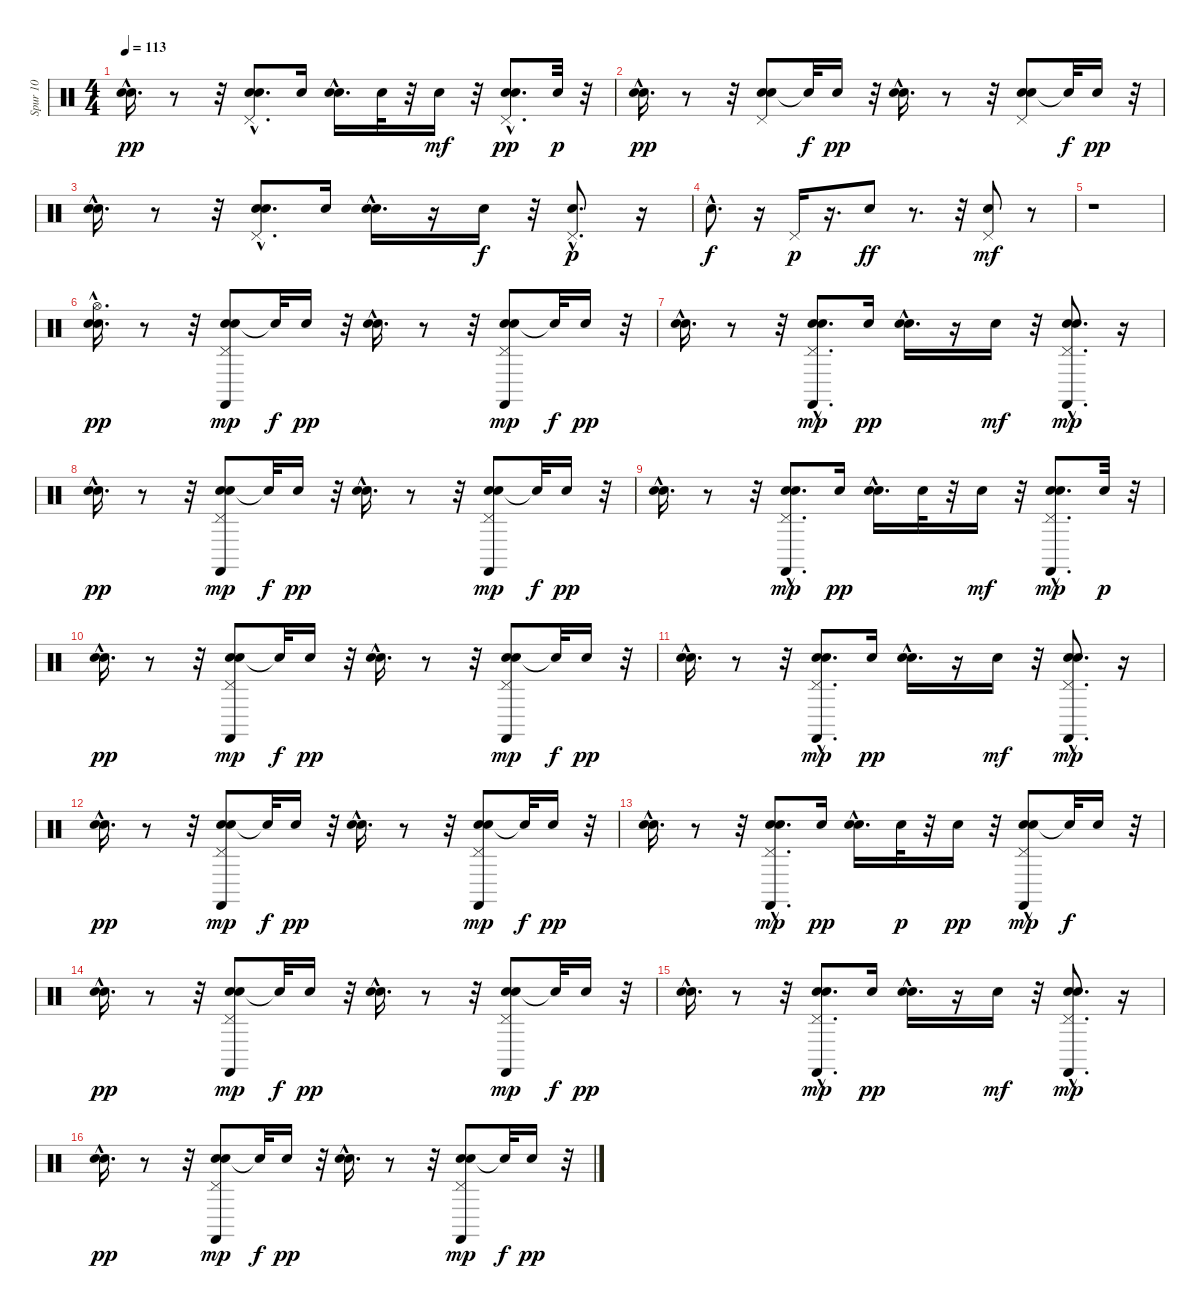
\track ("Spur 10" "Spur 10") {instrument percussion}
\staff {score}
\articulation defaults
\ts (4 4)
\tempo 113
\clef neutral
\ks c
("Snare (hit) 2"{hac} "Electric Snare (hit)").16{d dy pp} r.8 r.32 ("Snare (hit) 2" "Pedal Hi-Hat (hit)"{hac} "Electric Snare (hit)").8{d} "Snare (hit) 2".16 ("Snare (hit) 2"{hac} "Electric Snare (hit)").16{d} "Snare (hit) 2".32 r.32 "Snare (hit) 2".16{dy mf} r.32 ("Snare (hit) 2"{hac} "Pedal Hi-Hat (hit)"{hac} "Electric Snare (hit)").8{d dy pp} "Snare (hit) 2".32{dy p} r.32 |
("Snare (hit) 2"{hac} "Electric Snare (hit)").16{d dy pp} r.8 r.32 ("Snare (hit) 2" "Pedal Hi-Hat (hit)" "Electric Snare (hit)").8 "Snare (hit)"{t}.32{dy f} "Snare (hit) 2".16{dy pp} r.32 ("Snare (hit) 2"{hac} "Electric Snare (hit)").16{d} r.8 r.32 ("Snare (hit) 2" "Pedal Hi-Hat (hit)" "Electric Snare (hit)").8 "Snare (hit)"{t}.32{dy f} "Snare (hit) 2".16{dy pp} r.32 |
("Snare (hit) 2"{hac} "Electric Snare (hit)").16{d} r.8 r.32 ("Snare (hit) 2" "Pedal Hi-Hat (hit)"{hac} "Electric Snare (hit)").8{d} "Snare (hit) 2".16 ("Snare (hit) 2"{hac} "Electric Snare (hit)").16{d} r.16 "Hand Clap (hit)".16{dy f} r.32 ("Snare (hit) 2"{hac} "Pedal Hi-Hat (hit)"{hac}).8{d dy p} r.16 |
"Hand Clap (hit)"{hac}.8{d dy f} r.16 "Pedal Hi-Hat (hit)".16{dy p} r.16{d} "Snare (hit) 2".8{dy ff} r.8{d} r.32 ("Pedal Hi-Hat (hit)" "Hand Clap (hit)").8{dy mf} r.8 |
r.1 |
("Hi-Hat (open)" "Snare (hit) 2"{hac} "Electric Snare (hit)").16{d dy pp} r.8 r.32 ("Snare (hit) 2" "Pedal Hi-Hat (hit)" "Electric Snare (hit)" "Castanets (hit)").8{dy mp} "Snare (hit)"{t}.32{dy f} "Snare (hit) 2".16{dy pp} r.32 ("Snare (hit) 2"{hac} "Electric Snare (hit)").16{d} r.8 r.32 ("Snare (hit) 2" "Pedal Hi-Hat (hit)" "Electric Snare (hit)" "Castanets (hit)").8{dy mp} "Snare (hit)"{t}.32{dy f} "Snare (hit) 2".16{dy pp} r.32 |
("Snare (hit) 2"{hac} "Electric Snare (hit)").16{d} r.8 r.32 ("Snare (hit) 2" "Pedal Hi-Hat (hit)"{hac} "Electric Snare (hit)" "Castanets (hit)").8{d dy mp} "Snare (hit) 2".16{dy pp} ("Snare (hit) 2"{hac} "Electric Snare (hit)").16{d} r.16 "Snare (hit) 2".16{dy mf} r.32 ("Snare (hit) 2"{hac} "Pedal Hi-Hat (hit)"{hac} "Electric Snare (hit)" "Castanets (hit)").8{d dy mp} r.16 |
("Snare (hit) 2"{hac} "Electric Snare (hit)").16{d dy pp} r.8 r.32 ("Snare (hit) 2" "Pedal Hi-Hat (hit)" "Electric Snare (hit)" "Castanets (hit)").8{dy mp} "Snare (hit)"{t}.32{dy f} "Snare (hit) 2".16{dy pp} r.32 ("Snare (hit) 2"{hac} "Electric Snare (hit)").16{d} r.8 r.32 ("Snare (hit) 2" "Pedal Hi-Hat (hit)" "Electric Snare (hit)" "Castanets (hit)").8{dy mp} "Snare (hit)"{t}.32{dy f} "Snare (hit) 2".16{dy pp} r.32 |
("Snare (hit) 2"{hac} "Electric Snare (hit)").16{d} r.8 r.32 ("Snare (hit) 2" "Pedal Hi-Hat (hit)"{hac} "Electric Snare (hit)" "Castanets (hit)").8{d dy mp} "Snare (hit) 2".16{dy pp} ("Snare (hit) 2"{hac} "Electric Snare (hit)").16{d} "Snare (hit) 2".32 r.32 "Snare (hit) 2".16{dy mf} r.32 ("Snare (hit) 2"{hac} "Pedal Hi-Hat (hit)"{hac} "Electric Snare (hit)" "Castanets (hit)").8{d dy mp} "Snare (hit) 2".32{dy p} r.32 |
("Snare (hit) 2"{hac} "Electric Snare (hit)").16{d dy pp} r.8 r.32 ("Snare (hit) 2" "Pedal Hi-Hat (hit)" "Electric Snare (hit)" "Castanets (hit)").8{dy mp} "Snare (hit)"{t}.32{dy f} "Snare (hit) 2".16{dy pp} r.32 ("Snare (hit) 2"{hac} "Electric Snare (hit)").16{d} r.8 r.32 ("Snare (hit) 2" "Pedal Hi-Hat (hit)" "Electric Snare (hit)" "Castanets (hit)").8{dy mp} "Snare (hit)"{t}.32{dy f} "Snare (hit) 2".16{dy pp} r.32 |
("Snare (hit) 2"{hac} "Electric Snare (hit)").16{d} r.8 r.32 ("Snare (hit) 2" "Pedal Hi-Hat (hit)"{hac} "Electric Snare (hit)" "Castanets (hit)").8{d dy mp} "Snare (hit) 2".16{dy pp} ("Snare (hit) 2"{hac} "Electric Snare (hit)").16{d} r.16 "Snare (hit) 2".16{dy mf} r.32 ("Snare (hit) 2"{hac} "Pedal Hi-Hat (hit)"{hac} "Electric Snare (hit)" "Castanets (hit)").8{d dy mp} r.16 |
("Snare (hit) 2"{hac} "Electric Snare (hit)").16{d dy pp} r.8 r.32 ("Snare (hit) 2" "Pedal Hi-Hat (hit)" "Electric Snare (hit)" "Castanets (hit)").8{dy mp} "Snare (hit)"{t}.32{dy f} "Snare (hit) 2".16{dy pp} r.32 ("Snare (hit) 2"{hac} "Electric Snare (hit)").16{d} r.8 r.32 ("Snare (hit) 2" "Pedal Hi-Hat (hit)" "Electric Snare (hit)" "Castanets (hit)").8{dy mp} "Snare (hit)"{t}.32{dy f} "Snare (hit) 2".16{dy pp} r.32 |
("Snare (hit) 2"{hac} "Electric Snare (hit)").16{d} r.8 r.32 ("Snare (hit) 2" "Pedal Hi-Hat (hit)"{hac} "Electric Snare (hit)" "Castanets (hit)").8{d dy mp} "Snare (hit) 2".16{dy pp} ("Snare (hit) 2"{hac} "Electric Snare (hit)").16{d} "Snare (hit) 2".32{dy p} r.32 "Snare (hit) 2".16{dy pp} r.32 ("Hand Clap (hit)"{hac} "Pedal Hi-Hat (hit)" "Electric Snare (hit)" "Castanets (hit)").8{dy mp} "Snare (hit)"{t}.32{dy f} "Hand Clap (hit)".16 r.32 |
("Snare (hit) 2"{hac} "Electric Snare (hit)").16{d dy pp} r.8 r.32 ("Snare (hit) 2" "Pedal Hi-Hat (hit)" "Electric Snare (hit)" "Castanets (hit)").8{dy mp} "Snare (hit)"{t}.32{dy f} "Snare (hit) 2".16{dy pp} r.32 ("Snare (hit) 2"{hac} "Electric Snare (hit)").16{d} r.8 r.32 ("Snare (hit) 2" "Pedal Hi-Hat (hit)" "Electric Snare (hit)" "Castanets (hit)").8{dy mp} "Snare (hit)"{t}.32{dy f} "Snare (hit) 2".16{dy pp} r.32 |
("Snare (hit) 2"{hac} "Electric Snare (hit)").16{d} r.8 r.32 ("Snare (hit) 2" "Pedal Hi-Hat (hit)"{hac} "Electric Snare (hit)" "Castanets (hit)").8{d dy mp} "Snare (hit) 2".16{dy pp} ("Snare (hit) 2"{hac} "Electric Snare (hit)").16{d} r.16 "Snare (hit) 2".16{dy mf} r.32 ("Snare (hit) 2"{hac} "Pedal Hi-Hat (hit)"{hac} "Electric Snare (hit)" "Castanets (hit)").8{d dy mp} r.16 |
("Snare (hit) 2"{hac} "Electric Snare (hit)").16{d dy pp} r.8 r.32 ("Snare (hit) 2" "Pedal Hi-Hat (hit)" "Electric Snare (hit)" "Castanets (hit)").8{dy mp} "Snare (hit)"{t}.32{dy f} "Snare (hit) 2".16{dy pp} r.32 ("Snare (hit) 2"{hac} "Electric Snare (hit)").16{d} r.8 r.32 ("Snare (hit) 2" "Pedal Hi-Hat (hit)" "Electric Snare (hit)" "Castanets (hit)").8{dy mp} "Snare (hit)"{t}.32{dy f} "Snare (hit) 2".16{dy pp} r.32
